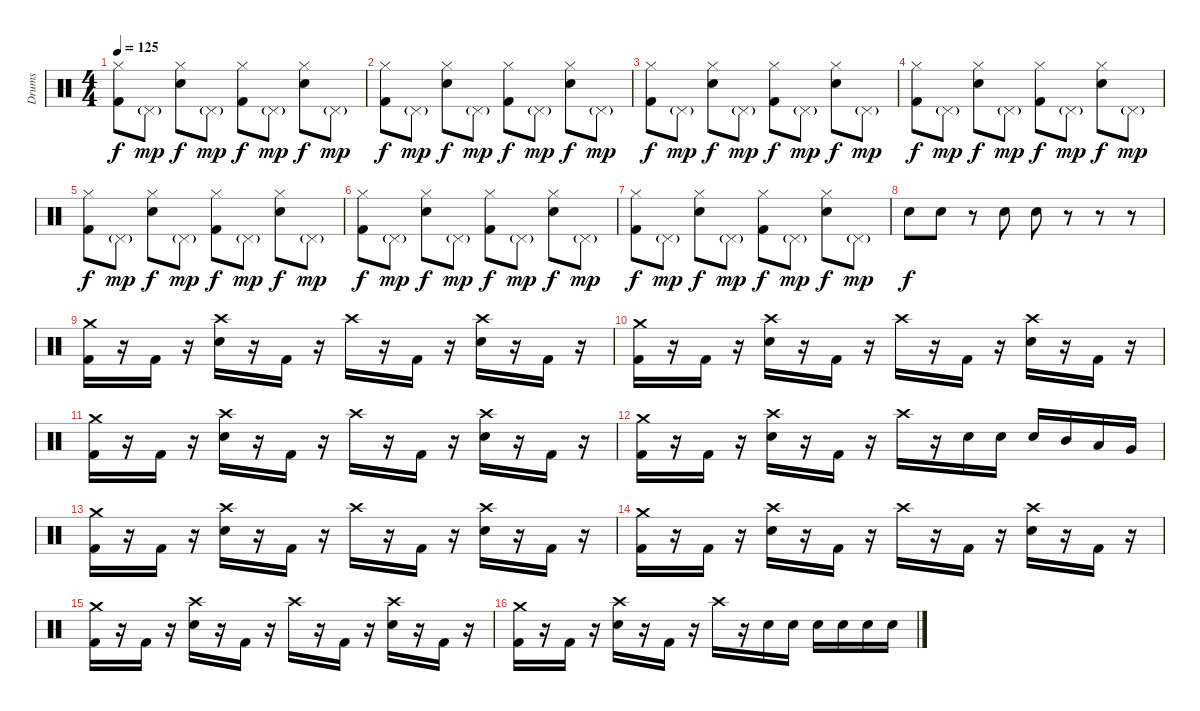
\track ("Drums" "Drums") {instrument percussion}
\staff {score}
\articulation defaults
\ts (4 4)
\tempo 125
\clef neutral
\ks c
("Hi-Hat (closed)" "Kick (hit) 2").8{dy f} "Pedal Hi-Hat (hit)"{g}.8{dy mp} ("Hi-Hat (closed)" "Snare (hit) 2").8{dy f} "Pedal Hi-Hat (hit)"{g}.8{dy mp} ("Hi-Hat (closed)" "Kick (hit) 2").8{dy f} "Pedal Hi-Hat (hit)"{g}.8{dy mp} ("Hi-Hat (closed)" "Snare (hit) 2").8{dy f} "Pedal Hi-Hat (hit)"{g}.8{dy mp} |
("Hi-Hat (closed)" "Kick (hit) 2").8{dy f} "Pedal Hi-Hat (hit)"{g}.8{dy mp} ("Hi-Hat (closed)" "Snare (hit) 2").8{dy f} "Pedal Hi-Hat (hit)"{g}.8{dy mp} ("Hi-Hat (closed)" "Kick (hit) 2").8{dy f} "Pedal Hi-Hat (hit)"{g}.8{dy mp} ("Hi-Hat (closed)" "Snare (hit) 2").8{dy f} "Pedal Hi-Hat (hit)"{g}.8{dy mp} |
("Hi-Hat (closed)" "Kick (hit) 2").8{dy f} "Pedal Hi-Hat (hit)"{g}.8{dy mp} ("Hi-Hat (closed)" "Snare (hit) 2").8{dy f} "Pedal Hi-Hat (hit)"{g}.8{dy mp} ("Hi-Hat (closed)" "Kick (hit) 2").8{dy f} "Pedal Hi-Hat (hit)"{g}.8{dy mp} ("Hi-Hat (closed)" "Snare (hit) 2").8{dy f} "Pedal Hi-Hat (hit)"{g}.8{dy mp} |
("Hi-Hat (closed)" "Kick (hit) 2").8{dy f} "Pedal Hi-Hat (hit)"{g}.8{dy mp} ("Hi-Hat (closed)" "Snare (hit) 2").8{dy f} "Pedal Hi-Hat (hit)"{g}.8{dy mp} ("Hi-Hat (closed)" "Kick (hit) 2").8{dy f} "Pedal Hi-Hat (hit)"{g}.8{dy mp} ("Hi-Hat (closed)" "Snare (hit) 2").8{dy f} "Pedal Hi-Hat (hit)"{g}.8{dy mp} |
("Hi-Hat (closed)" "Kick (hit) 2").8{dy f} "Pedal Hi-Hat (hit)"{g}.8{dy mp} ("Hi-Hat (closed)" "Snare (hit) 2").8{dy f} "Pedal Hi-Hat (hit)"{g}.8{dy mp} ("Hi-Hat (closed)" "Kick (hit) 2").8{dy f} "Pedal Hi-Hat (hit)"{g}.8{dy mp} ("Hi-Hat (closed)" "Snare (hit) 2").8{dy f} "Pedal Hi-Hat (hit)"{g}.8{dy mp} |
("Hi-Hat (closed)" "Kick (hit) 2").8{dy f} "Pedal Hi-Hat (hit)"{g}.8{dy mp} ("Hi-Hat (closed)" "Snare (hit) 2").8{dy f} "Pedal Hi-Hat (hit)"{g}.8{dy mp} ("Hi-Hat (closed)" "Kick (hit) 2").8{dy f} "Pedal Hi-Hat (hit)"{g}.8{dy mp} ("Hi-Hat (closed)" "Snare (hit) 2").8{dy f} "Pedal Hi-Hat (hit)"{g}.8{dy mp} |
("Hi-Hat (closed)" "Kick (hit) 2").8{dy f} "Pedal Hi-Hat (hit)"{g}.8{dy mp} ("Hi-Hat (closed)" "Snare (hit) 2").8{dy f} "Pedal Hi-Hat (hit)"{g}.8{dy mp} ("Hi-Hat (closed)" "Kick (hit) 2").8{dy f} "Pedal Hi-Hat (hit)"{g}.8{dy mp} ("Hi-Hat (closed)" "Snare (hit) 2").8{dy f} "Pedal Hi-Hat (hit)"{g}.8{dy mp} |
"Snare (hit) 2".8{dy f} "Snare (hit) 2".8 r.8 "Snare (hit) 2".8 "Snare (hit) 2".8 r.8 r.8 r.8 |
("Crash medium (hit)" "Kick (hit) 2").16 r.16 "Kick (hit) 2".16 r.16 ("Crash high (hit)" "Snare (hit) 2").16 r.16 "Kick (hit) 2".16 r.16 "Crash high (hit)".16 r.16 "Kick (hit) 2".16 r.16 ("Crash high (hit)" "Snare (hit) 2").16 r.16 "Kick (hit) 2".16 r.16 |
("Crash medium (hit)" "Kick (hit) 2").16 r.16 "Kick (hit) 2".16 r.16 ("Crash high (hit)" "Snare (hit) 2").16 r.16 "Kick (hit) 2".16 r.16 "Crash high (hit)".16 r.16 "Kick (hit) 2".16 r.16 ("Crash high (hit)" "Snare (hit) 2").16 r.16 "Kick (hit) 2".16 r.16 |
("Crash medium (hit)" "Kick (hit) 2").16 r.16 "Kick (hit) 2".16 r.16 ("Crash high (hit)" "Snare (hit) 2").16 r.16 "Kick (hit) 2".16 r.16 "Crash high (hit)".16 r.16 "Kick (hit) 2".16 r.16 ("Crash high (hit)" "Snare (hit) 2").16 r.16 "Kick (hit) 2".16 r.16 |
("Crash medium (hit)" "Kick (hit) 2").16 r.16 "Kick (hit) 2".16 r.16 ("Crash high (hit)" "Snare (hit) 2").16 r.16 "Kick (hit) 2".16 r.16 "Crash high (hit)".16 r.16 "Snare (hit) 2".16 "Snare (hit) 2".16 "Snare (hit) 2".16 "Mid Tom (hit)".16 "Low Tom (hit)".16 "Very Low Tom (hit)".16 |
("Crash medium (hit)" "Kick (hit) 2").16 r.16 "Kick (hit) 2".16 r.16 ("Crash high (hit)" "Snare (hit) 2").16 r.16 "Kick (hit) 2".16 r.16 "Crash high (hit)".16 r.16 "Kick (hit) 2".16 r.16 ("Crash high (hit)" "Snare (hit) 2").16 r.16 "Kick (hit) 2".16 r.16 |
("Crash medium (hit)" "Kick (hit) 2").16 r.16 "Kick (hit) 2".16 r.16 ("Crash high (hit)" "Snare (hit) 2").16 r.16 "Kick (hit) 2".16 r.16 "Crash high (hit)".16 r.16 "Kick (hit) 2".16 r.16 ("Crash high (hit)" "Snare (hit) 2").16 r.16 "Kick (hit) 2".16 r.16 |
("Crash medium (hit)" "Kick (hit) 2").16 r.16 "Kick (hit) 2".16 r.16 ("Crash high (hit)" "Snare (hit) 2").16 r.16 "Kick (hit) 2".16 r.16 "Crash high (hit)".16 r.16 "Kick (hit) 2".16 r.16 ("Crash high (hit)" "Snare (hit) 2").16 r.16 "Kick (hit) 2".16 r.16 |
("Crash medium (hit)" "Kick (hit) 2").16 r.16 "Kick (hit) 2".16 r.16 ("Crash high (hit)" "Snare (hit) 2").16 r.16 "Kick (hit) 2".16 r.16 "Crash high (hit)".16 r.16 "Snare (hit) 2".16 "Snare (hit) 2".16 "Snare (hit) 2".16 "Snare (hit) 2".16 "Snare (hit) 2".16 "Snare (hit) 2".16
